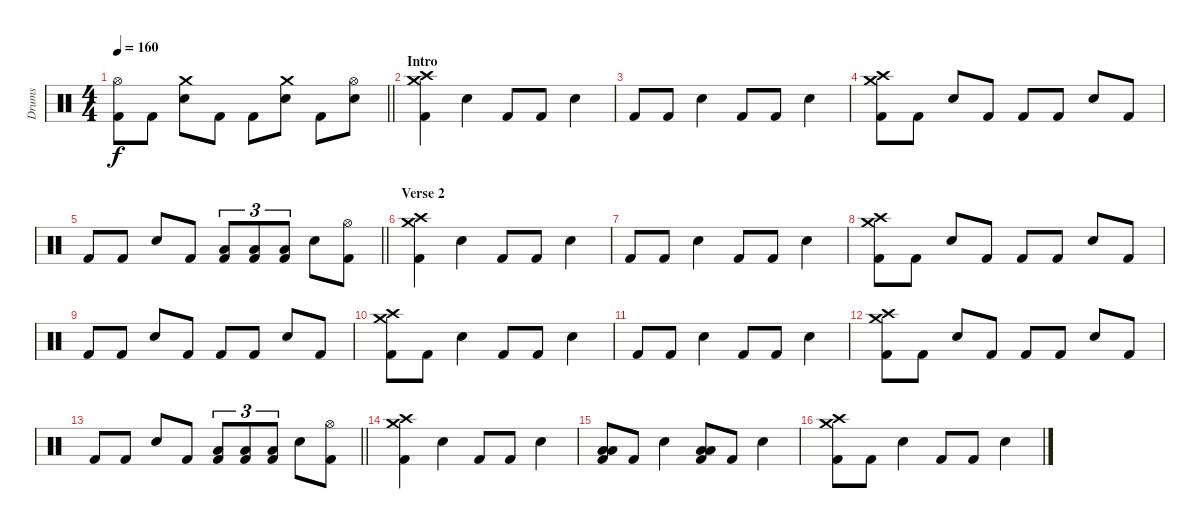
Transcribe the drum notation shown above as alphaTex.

\track ("Drums" "Drums") {instrument percussion}
\staff {score}
\articulation defaults
\ts (4 4)
\tempo 160
\clef neutral
\barLineRight lightlight
\ks c
("Hi-Hat (open)" "Kick (hit) 2").8{dy f} "Kick (hit) 2".8 ("Crash medium (hit)" "Snare (hit) 2").8 "Kick (hit) 2".8 "Kick (hit) 2".8 ("Crash medium (hit)" "Snare (hit) 2").8 "Kick (hit) 2".8 ("Hi-Hat (open)" "Snare (hit) 2").8 |
\section ("" "Intro")
("Crash medium (hit)" "Crash high (hit)" "Kick (hit) 2").4 "Snare (hit) 2".4 "Kick (hit) 2".8 "Kick (hit) 2".8 "Snare (hit) 2".4 |
"Kick (hit) 2".8 "Kick (hit) 2".8 "Snare (hit) 2".4 "Kick (hit) 2".8 "Kick (hit) 2".8 "Snare (hit) 2".4 |
("Crash medium (hit)" "Crash high (hit)" "Kick (hit) 2").8 "Kick (hit) 2".8 "Snare (hit) 2".8 "Kick (hit) 2".8 "Kick (hit) 2".8 "Kick (hit) 2".8 "Snare (hit) 2".8 "Kick (hit) 2".8 |
\barLineRight lightlight "Kick (hit) 2".8 "Kick (hit) 2".8 "Snare (hit) 2".8 "Kick (hit) 2".8
("Low Floor Tom (hit)" "Kick (hit) 2").8{tu (3 2)} ("Low Floor Tom (hit)" "Kick (hit) 2").8{tu (3 2)} ("Low Floor Tom (hit)" "Kick (hit) 2").8{tu (3 2)} "Snare (hit) 2".8 ("Hi-Hat (open)" "Kick (hit) 2").8 |
\section ("" "Verse 2")
("Crash medium (hit)" "Crash high (hit)" "Kick (hit) 2").4 "Snare (hit) 2".4 "Kick (hit) 2".8 "Kick (hit) 2".8 "Snare (hit) 2".4 |
"Kick (hit) 2".8 "Kick (hit) 2".8 "Snare (hit) 2".4 "Kick (hit) 2".8 "Kick (hit) 2".8 "Snare (hit) 2".4 |
("Crash medium (hit)" "Crash high (hit)" "Kick (hit) 2").8 "Kick (hit) 2".8 "Snare (hit) 2".8 "Kick (hit) 2".8 "Kick (hit) 2".8 "Kick (hit) 2".8 "Snare (hit) 2".8 "Kick (hit) 2".8 |
"Kick (hit) 2".8 "Kick (hit) 2".8 "Snare (hit) 2".8 "Kick (hit) 2".8 "Kick (hit) 2".8 "Kick (hit) 2".8 "Snare (hit) 2".8 "Kick (hit) 2".8 |
("Crash medium (hit)" "Crash high (hit)" "Kick (hit) 2").8 "Kick (hit) 2".8 "Snare (hit) 2".4 "Kick (hit) 2".8 "Kick (hit) 2".8 "Snare (hit) 2".4 |
"Kick (hit) 2".8 "Kick (hit) 2".8 "Snare (hit) 2".4 "Kick (hit) 2".8 "Kick (hit) 2".8 "Snare (hit) 2".4 |
("Crash medium (hit)" "Crash high (hit)" "Kick (hit) 2").8 "Kick (hit) 2".8 "Snare (hit) 2".8 "Kick (hit) 2".8 "Kick (hit) 2".8 "Kick (hit) 2".8 "Snare (hit) 2".8 "Kick (hit) 2".8 |
\barLineRight lightlight "Kick (hit) 2".8 "Kick (hit) 2".8 "Snare (hit) 2".8 "Kick (hit) 2".8
("Low Floor Tom (hit)" "Kick (hit) 2").8{tu (3 2)} ("Low Floor Tom (hit)" "Kick (hit) 2").8{tu (3 2)} ("Low Floor Tom (hit)" "Kick (hit) 2").8{tu (3 2)} "Snare (hit) 2".8 ("Hi-Hat (open)" "Kick (hit) 2").8 |
("Crash medium (hit)" "Crash high (hit)" "Kick (hit) 2").4 "Snare (hit) 2".4 "Kick (hit) 2".8 "Kick (hit) 2".8 "Snare (hit) 2".4 |
("Low Floor Tom (hit)" "Low Tom (hit)" "Kick (hit) 2").8 "Kick (hit) 2".8 "Snare (hit) 2".4 ("Low Floor Tom (hit)" "Low Tom (hit)" "Kick (hit) 2").8 "Kick (hit) 2".8 "Snare (hit) 2".4 |
("Crash medium (hit)" "Crash high (hit)" "Kick (hit) 2").8 "Kick (hit) 2".8 "Snare (hit) 2".4 "Kick (hit) 2".8 "Kick (hit) 2".8 "Snare (hit) 2".4
